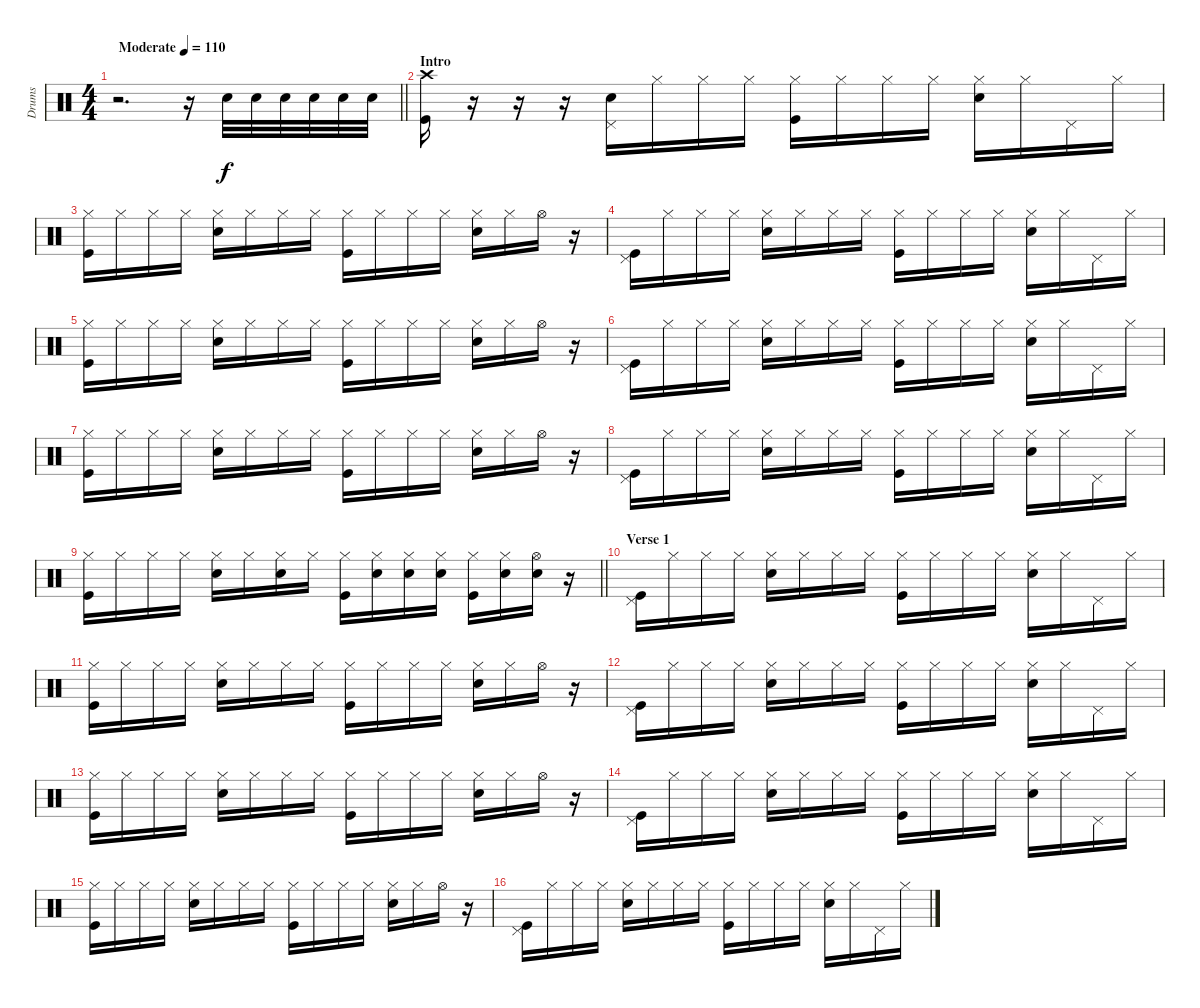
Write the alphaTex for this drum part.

\track ("Drums" "Drums") {instrument percussion}
\staff {score}
\articulation defaults
\ts (4 4)
\tempo (110 "Moderate")
\clef neutral
\barLineRight lightlight
\ks c
r.2{d dy f} r.16 "Snare (hit) 2".32 "Snare (hit) 2".32 "Snare (hit) 2".32 "Snare (hit) 2".32 "Snare (hit) 2".32 "Snare (hit) 2".32 |
\section ("" "Intro")
("Crash high (hit)" "Kick (hit)").16 r.16 r.16 r.16 ("Pedal Hi-Hat (hit)" "Snare (hit) 2").16 "Hi-Hat (closed)".16 "Hi-Hat (closed)".16 "Hi-Hat (closed)".16 ("Hi-Hat (closed)" "Kick (hit)").16 "Hi-Hat (closed)".16 "Hi-Hat (closed)".16 "Hi-Hat (closed)".16 ("Hi-Hat (closed)" "Snare (hit) 2").16 "Hi-Hat (closed)".16 "Pedal Hi-Hat (hit)".16 "Hi-Hat (closed)".16 |
("Hi-Hat (closed)" "Kick (hit)").16 "Hi-Hat (closed)".16 "Hi-Hat (closed)".16 "Hi-Hat (closed)".16 ("Hi-Hat (closed)" "Snare (hit) 2").16 "Hi-Hat (closed)".16 "Hi-Hat (closed)".16 "Hi-Hat (closed)".16 ("Hi-Hat (closed)" "Kick (hit)").16 "Hi-Hat (closed)".16 "Hi-Hat (closed)".16 "Hi-Hat (closed)".16 ("Hi-Hat (closed)" "Snare (hit) 2").16 "Hi-Hat (closed)".16 "Hi-Hat (open)".16 r.16 |
("Pedal Hi-Hat (hit)" "Kick (hit)").16 "Hi-Hat (closed)".16 "Hi-Hat (closed)".16 "Hi-Hat (closed)".16 ("Hi-Hat (closed)" "Snare (hit) 2").16 "Hi-Hat (closed)".16 "Hi-Hat (closed)".16 "Hi-Hat (closed)".16 ("Hi-Hat (closed)" "Kick (hit)").16 "Hi-Hat (closed)".16 "Hi-Hat (closed)".16 "Hi-Hat (closed)".16 ("Hi-Hat (closed)" "Snare (hit) 2").16 "Hi-Hat (closed)".16 "Pedal Hi-Hat (hit)".16 "Hi-Hat (closed)".16 |
("Hi-Hat (closed)" "Kick (hit)").16 "Hi-Hat (closed)".16 "Hi-Hat (closed)".16 "Hi-Hat (closed)".16 ("Hi-Hat (closed)" "Snare (hit) 2").16 "Hi-Hat (closed)".16 "Hi-Hat (closed)".16 "Hi-Hat (closed)".16 ("Hi-Hat (closed)" "Kick (hit)").16 "Hi-Hat (closed)".16 "Hi-Hat (closed)".16 "Hi-Hat (closed)".16 ("Hi-Hat (closed)" "Snare (hit) 2").16 "Hi-Hat (closed)".16 "Hi-Hat (open)".16 r.16 |
("Pedal Hi-Hat (hit)" "Kick (hit)").16 "Hi-Hat (closed)".16 "Hi-Hat (closed)".16 "Hi-Hat (closed)".16 ("Hi-Hat (closed)" "Snare (hit) 2").16 "Hi-Hat (closed)".16 "Hi-Hat (closed)".16 "Hi-Hat (closed)".16 ("Hi-Hat (closed)" "Kick (hit)").16 "Hi-Hat (closed)".16 "Hi-Hat (closed)".16 "Hi-Hat (closed)".16 ("Hi-Hat (closed)" "Snare (hit) 2").16 "Hi-Hat (closed)".16 "Pedal Hi-Hat (hit)".16 "Hi-Hat (closed)".16 |
("Hi-Hat (closed)" "Kick (hit)").16 "Hi-Hat (closed)".16 "Hi-Hat (closed)".16 "Hi-Hat (closed)".16 ("Hi-Hat (closed)" "Snare (hit) 2").16 "Hi-Hat (closed)".16 "Hi-Hat (closed)".16 "Hi-Hat (closed)".16 ("Hi-Hat (closed)" "Kick (hit)").16 "Hi-Hat (closed)".16 "Hi-Hat (closed)".16 "Hi-Hat (closed)".16 ("Hi-Hat (closed)" "Snare (hit) 2").16 "Hi-Hat (closed)".16 "Hi-Hat (open)".16 r.16 |
("Pedal Hi-Hat (hit)" "Kick (hit)").16 "Hi-Hat (closed)".16 "Hi-Hat (closed)".16 "Hi-Hat (closed)".16 ("Hi-Hat (closed)" "Snare (hit) 2").16 "Hi-Hat (closed)".16 "Hi-Hat (closed)".16 "Hi-Hat (closed)".16 ("Hi-Hat (closed)" "Kick (hit)").16 "Hi-Hat (closed)".16 "Hi-Hat (closed)".16 "Hi-Hat (closed)".16 ("Hi-Hat (closed)" "Snare (hit) 2").16 "Hi-Hat (closed)".16 "Pedal Hi-Hat (hit)".16 "Hi-Hat (closed)".16 |
\barLineRight lightlight
("Hi-Hat (closed)" "Kick (hit)").16 "Hi-Hat (closed)".16 "Hi-Hat (closed)".16 "Hi-Hat (closed)".16 ("Hi-Hat (closed)" "Snare (hit) 2").16 "Hi-Hat (closed)".16 ("Hi-Hat (closed)" "Snare (hit) 2").16 "Hi-Hat (closed)".16 ("Hi-Hat (closed)" "Kick (hit)").16 ("Hi-Hat (closed)" "Snare (hit) 2").16 ("Hi-Hat (closed)" "Snare (hit) 2").16 ("Hi-Hat (closed)" "Snare (hit) 2").16 ("Hi-Hat (closed)" "Kick (hit)").16 ("Hi-Hat (closed)" "Snare (hit) 2").16 ("Hi-Hat (open)" "Snare (hit) 2").16 r.16 |
\section ("" "Verse 1")
("Pedal Hi-Hat (hit)" "Kick (hit)").16 "Hi-Hat (closed)".16 "Hi-Hat (closed)".16 "Hi-Hat (closed)".16 ("Hi-Hat (closed)" "Snare (hit) 2").16 "Hi-Hat (closed)".16 "Hi-Hat (closed)".16 "Hi-Hat (closed)".16 ("Hi-Hat (closed)" "Kick (hit)").16 "Hi-Hat (closed)".16 "Hi-Hat (closed)".16 "Hi-Hat (closed)".16 ("Hi-Hat (closed)" "Snare (hit) 2").16 "Hi-Hat (closed)".16 "Pedal Hi-Hat (hit)".16 "Hi-Hat (closed)".16 |
("Hi-Hat (closed)" "Kick (hit)").16 "Hi-Hat (closed)".16 "Hi-Hat (closed)".16 "Hi-Hat (closed)".16 ("Hi-Hat (closed)" "Snare (hit) 2").16 "Hi-Hat (closed)".16 "Hi-Hat (closed)".16 "Hi-Hat (closed)".16 ("Hi-Hat (closed)" "Kick (hit)").16 "Hi-Hat (closed)".16 "Hi-Hat (closed)".16 "Hi-Hat (closed)".16 ("Hi-Hat (closed)" "Snare (hit) 2").16 "Hi-Hat (closed)".16 "Hi-Hat (open)".16 r.16 |
("Pedal Hi-Hat (hit)" "Kick (hit)").16 "Hi-Hat (closed)".16 "Hi-Hat (closed)".16 "Hi-Hat (closed)".16 ("Hi-Hat (closed)" "Snare (hit) 2").16 "Hi-Hat (closed)".16 "Hi-Hat (closed)".16 "Hi-Hat (closed)".16 ("Hi-Hat (closed)" "Kick (hit)").16 "Hi-Hat (closed)".16 "Hi-Hat (closed)".16 "Hi-Hat (closed)".16 ("Hi-Hat (closed)" "Snare (hit) 2").16 "Hi-Hat (closed)".16 "Pedal Hi-Hat (hit)".16 "Hi-Hat (closed)".16 |
("Hi-Hat (closed)" "Kick (hit)").16 "Hi-Hat (closed)".16 "Hi-Hat (closed)".16 "Hi-Hat (closed)".16 ("Hi-Hat (closed)" "Snare (hit) 2").16 "Hi-Hat (closed)".16 "Hi-Hat (closed)".16 "Hi-Hat (closed)".16 ("Hi-Hat (closed)" "Kick (hit)").16 "Hi-Hat (closed)".16 "Hi-Hat (closed)".16 "Hi-Hat (closed)".16 ("Hi-Hat (closed)" "Snare (hit) 2").16 "Hi-Hat (closed)".16 "Hi-Hat (open)".16 r.16 |
("Pedal Hi-Hat (hit)" "Kick (hit)").16 "Hi-Hat (closed)".16 "Hi-Hat (closed)".16 "Hi-Hat (closed)".16 ("Hi-Hat (closed)" "Snare (hit) 2").16 "Hi-Hat (closed)".16 "Hi-Hat (closed)".16 "Hi-Hat (closed)".16 ("Hi-Hat (closed)" "Kick (hit)").16 "Hi-Hat (closed)".16 "Hi-Hat (closed)".16 "Hi-Hat (closed)".16 ("Hi-Hat (closed)" "Snare (hit) 2").16 "Hi-Hat (closed)".16 "Pedal Hi-Hat (hit)".16 "Hi-Hat (closed)".16 |
("Hi-Hat (closed)" "Kick (hit)").16 "Hi-Hat (closed)".16 "Hi-Hat (closed)".16 "Hi-Hat (closed)".16 ("Hi-Hat (closed)" "Snare (hit) 2").16 "Hi-Hat (closed)".16 "Hi-Hat (closed)".16 "Hi-Hat (closed)".16 ("Hi-Hat (closed)" "Kick (hit)").16 "Hi-Hat (closed)".16 "Hi-Hat (closed)".16 "Hi-Hat (closed)".16 ("Hi-Hat (closed)" "Snare (hit) 2").16 "Hi-Hat (closed)".16 "Hi-Hat (open)".16 r.16 |
("Pedal Hi-Hat (hit)" "Kick (hit)").16 "Hi-Hat (closed)".16 "Hi-Hat (closed)".16 "Hi-Hat (closed)".16 ("Hi-Hat (closed)" "Snare (hit) 2").16 "Hi-Hat (closed)".16 "Hi-Hat (closed)".16 "Hi-Hat (closed)".16 ("Hi-Hat (closed)" "Kick (hit)").16 "Hi-Hat (closed)".16 "Hi-Hat (closed)".16 "Hi-Hat (closed)".16 ("Hi-Hat (closed)" "Snare (hit) 2").16 "Hi-Hat (closed)".16 "Pedal Hi-Hat (hit)".16 "Hi-Hat (closed)".16
